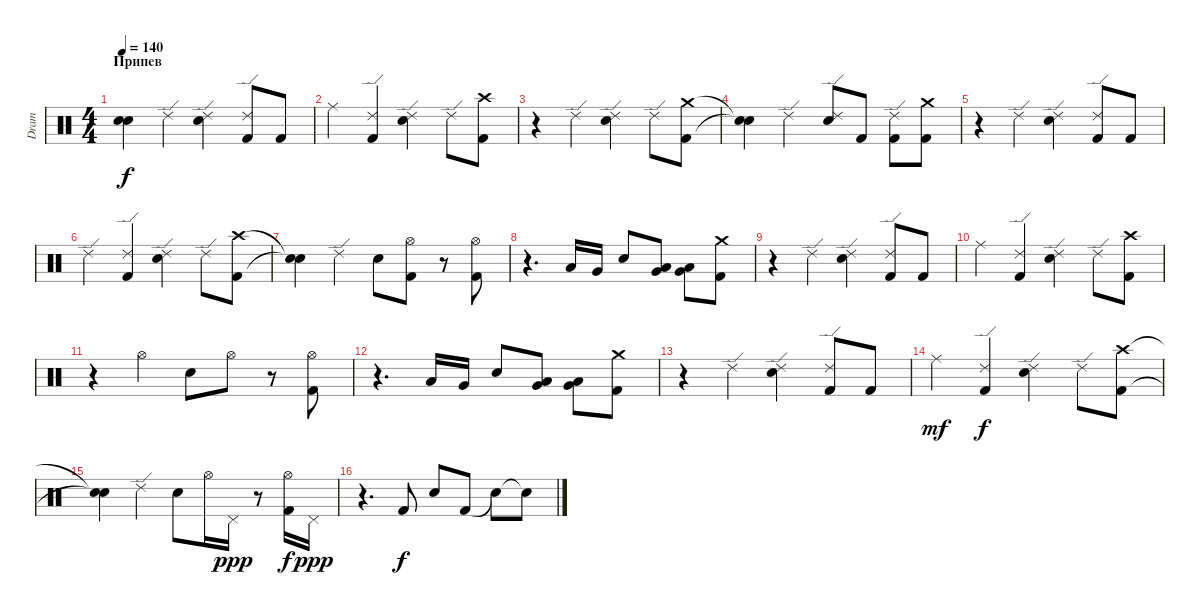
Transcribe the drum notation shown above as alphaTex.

\track ("Dram" "Dram") {instrument percussion}
\staff {score}
\articulation defaults
\ts (4 4)
\section ("" "Припев")
\tempo 140
\clef neutral
\ks c
("Snare (hit)"{t} "Snare (hit)"{t}).4{dy f} "Ride (edge) 2".4 ("Snare (hit) 2" "Ride (edge) 2").4 ("Kick (hit) 2" "Ride (edge) 2").8 "Kick (hit) 2".8 |
"Ride (middle)".4 ("Kick (hit) 2" "Ride (edge) 2").4 ("Snare (hit) 2" "Ride (edge) 2").4 "Ride (edge) 2".8 ("Crash high (hit)" "Kick (hit) 2").8 |
r.4 "Ride (edge) 2".4 ("Snare (hit) 2" "Ride (edge) 2").4 "Ride (edge) 2".8 ("Crash medium (hit)" "Kick (hit) 2").8 |
("Snare (hit)"{t} "Snare (hit)"{t}).4 "Ride (edge) 2".4 ("Snare (hit) 2" "Ride (edge) 2").8 "Kick (hit) 2".8 ("Ride (edge) 2" "Kick (hit) 2").8 ("Crash medium (hit)" "Kick (hit) 2").8 |
r.4 "Ride (edge) 2".4 ("Snare (hit) 2" "Ride (edge) 2").4 ("Kick (hit) 2" "Ride (edge) 2").8 "Kick (hit) 2".8 |
"Ride (edge) 2".4 ("Kick (hit) 2" "Ride (edge) 2").4 ("Snare (hit) 2" "Ride (edge) 2").4 "Ride (edge) 2".8 ("Crash high (hit)" "Kick (hit) 2").8 |
("Snare (hit)"{t} "Snare (hit)"{t}).4 "Ride (edge) 2".4 "Snare (hit) 2".8 ("Hi-Hat (open)" "Kick (hit) 2").8 r.8 ("Hi-Hat (open)" "Kick (hit) 2").8 |
r.4{d} "Low Tom (hit)".16 "Very Low Tom (hit)".16 "Snare (hit) 2".8 ("Very Low Tom (hit)" "Low Tom (hit)").8 ("Very Low Tom (hit)" "Low Floor Tom (hit)").8 ("Crash medium (hit)" "Kick (hit) 2").8 |
r.4 "Ride (edge) 2".4 ("Snare (hit) 2" "Ride (edge) 2").4 ("Kick (hit) 2" "Ride (edge) 2").8 "Kick (hit) 2".8 |
"Ride (middle)".4 ("Kick (hit) 2" "Ride (edge) 2").4 ("Snare (hit) 2" "Ride (edge) 2").4 "Ride (edge) 2".8 ("Crash high (hit)" "Kick (hit) 2").8 |
r.4 "Hi-Hat (open)".4 "Snare (hit) 2".8 "Hi-Hat (open)".8 r.8 ("Hi-Hat (open)" "Kick (hit) 2").8 |
r.4{d} "Low Tom (hit)".16 "Very Low Tom (hit)".16 "Snare (hit) 2".8 ("Very Low Tom (hit)" "Low Tom (hit)").8 ("Low Floor Tom (hit)" "Very Low Tom (hit)").8 ("Crash medium (hit)" "Kick (hit) 2").8 |
r.4 "Ride (edge) 2".4 ("Snare (hit) 2" "Ride (edge) 2").4 ("Kick (hit) 2" "Ride (edge) 2").8 "Kick (hit) 2".8 |
"Ride (middle)".4{dy mf} ("Kick (hit) 2" "Ride (edge) 2").4{dy f} ("Snare (hit) 2" "Ride (edge) 2").4 "Ride (edge) 2".8 ("Crash high (hit)" "Kick (hit) 2").8 |
("Snare (hit)"{t} "Snare (hit)"{t}).4 "Ride (edge) 2".4 "Snare (hit) 2".8 "Hi-Hat (open)".16 "Pedal Hi-Hat (hit)".16{dy ppp} r.8 ("Hi-Hat (open)" "Kick (hit) 2").16{dy f} "Pedal Hi-Hat (hit)".16{dy ppp} |
r.4{d} "Kick (hit) 2".8{dy f} "Snare (hit) 2".8 "Kick (hit) 2".8 "Snare (hit)"{t}.8 "Snare (hit)"{t}.8
